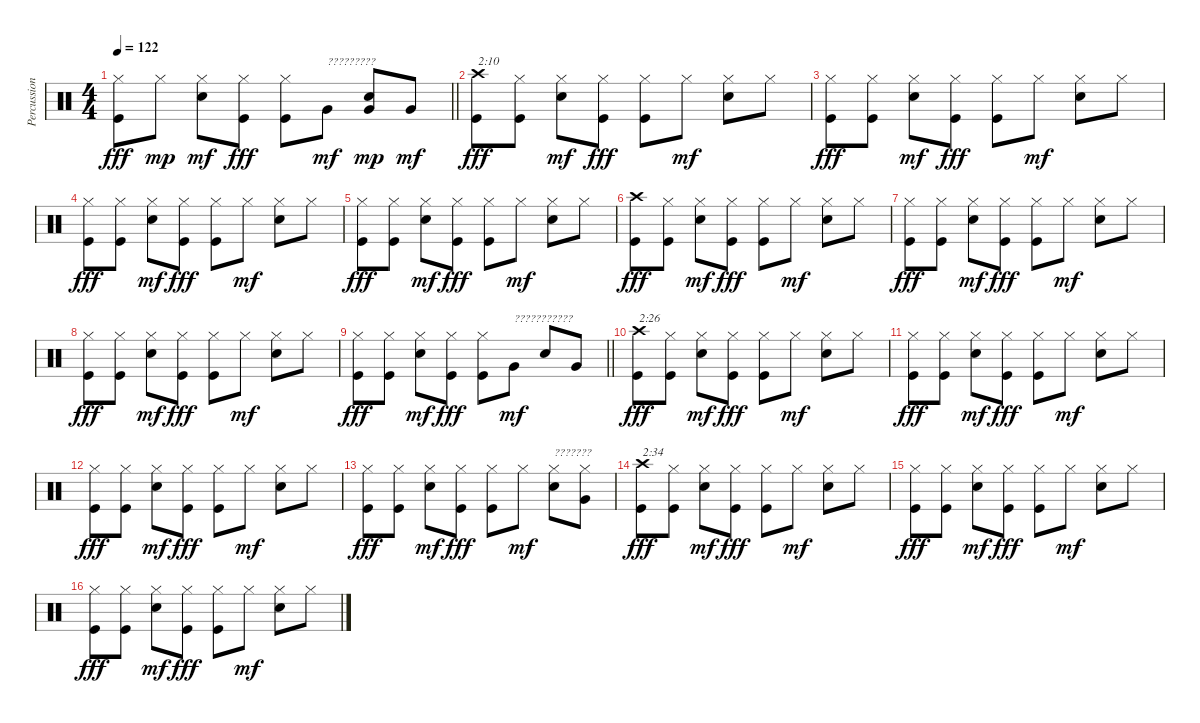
\track ("Percussion" "Percussion") {instrument percussion}
\staff {score}
\articulation defaults
\ts (4 4)
\tempo 122
\clef neutral
\barLineRight lightlight
\ks c
("Hi-Hat (closed)" "Kick (hit)").8{dy fff} "Hi-Hat (closed)".8{dy mp} ("Hi-Hat (closed)" "Snare (hit) 2").8{dy mf} ("Hi-Hat (closed)" "Kick (hit)").8{dy fff} ("Hi-Hat (closed)" "Kick (hit)").8 "Very Low Tom (hit)".8{txt "?????????" dy mf} ("Very Low Tom (hit)" "Snare (hit) 2").8{dy mp} "Very Low Tom (hit)".8{dy mf} |
("Crash high (hit)" "Kick (hit)").8{txt "2:10" dy fff} ("Hi-Hat (closed)" "Kick (hit)").8 ("Hi-Hat (closed)" "Snare (hit) 2").8{dy mf} ("Hi-Hat (closed)" "Kick (hit)").8{dy fff} ("Hi-Hat (closed)" "Kick (hit)").8 "Hi-Hat (closed)".8{dy mf} ("Hi-Hat (closed)" "Snare (hit) 2").8 "Hi-Hat (closed)".8 |
("Hi-Hat (closed)" "Kick (hit)").8{dy fff} ("Hi-Hat (closed)" "Kick (hit)").8 ("Hi-Hat (closed)" "Snare (hit) 2").8{dy mf} ("Hi-Hat (closed)" "Kick (hit)").8{dy fff} ("Hi-Hat (closed)" "Kick (hit)").8 "Hi-Hat (closed)".8{dy mf} ("Hi-Hat (closed)" "Snare (hit) 2").8 "Hi-Hat (closed)".8 |
("Hi-Hat (closed)" "Kick (hit)").8{dy fff} ("Hi-Hat (closed)" "Kick (hit)").8 ("Hi-Hat (closed)" "Snare (hit) 2").8{dy mf} ("Hi-Hat (closed)" "Kick (hit)").8{dy fff} ("Hi-Hat (closed)" "Kick (hit)").8 "Hi-Hat (closed)".8{dy mf} ("Hi-Hat (closed)" "Snare (hit) 2").8 "Hi-Hat (closed)".8 |
("Hi-Hat (closed)" "Kick (hit)").8{dy fff} ("Hi-Hat (closed)" "Kick (hit)").8 ("Hi-Hat (closed)" "Snare (hit) 2").8{dy mf} ("Hi-Hat (closed)" "Kick (hit)").8{dy fff} ("Hi-Hat (closed)" "Kick (hit)").8 "Hi-Hat (closed)".8{dy mf} ("Hi-Hat (closed)" "Snare (hit) 2").8 "Hi-Hat (closed)".8 |
("Crash high (hit)" "Kick (hit)").8{dy fff} ("Hi-Hat (closed)" "Kick (hit)").8 ("Hi-Hat (closed)" "Snare (hit) 2").8{dy mf} ("Hi-Hat (closed)" "Kick (hit)").8{dy fff} ("Hi-Hat (closed)" "Kick (hit)").8 "Hi-Hat (closed)".8{dy mf} ("Hi-Hat (closed)" "Snare (hit) 2").8 "Hi-Hat (closed)".8 |
("Hi-Hat (closed)" "Kick (hit)").8{dy fff} ("Hi-Hat (closed)" "Kick (hit)").8 ("Hi-Hat (closed)" "Snare (hit) 2").8{dy mf} ("Hi-Hat (closed)" "Kick (hit)").8{dy fff} ("Hi-Hat (closed)" "Kick (hit)").8 "Hi-Hat (closed)".8{dy mf} ("Hi-Hat (closed)" "Snare (hit) 2").8 "Hi-Hat (closed)".8 |
("Hi-Hat (closed)" "Kick (hit)").8{dy fff} ("Hi-Hat (closed)" "Kick (hit)").8 ("Hi-Hat (closed)" "Snare (hit) 2").8{dy mf} ("Hi-Hat (closed)" "Kick (hit)").8{dy fff} ("Hi-Hat (closed)" "Kick (hit)").8 "Hi-Hat (closed)".8{dy mf} ("Hi-Hat (closed)" "Snare (hit) 2").8 "Hi-Hat (closed)".8 |
\barLineRight lightlight
("Hi-Hat (closed)" "Kick (hit)").8{dy fff} ("Hi-Hat (closed)" "Kick (hit)").8 ("Hi-Hat (closed)" "Snare (hit) 2").8{dy mf} ("Hi-Hat (closed)" "Kick (hit)").8{dy fff} ("Hi-Hat (closed)" "Kick (hit)").8 "Very Low Tom (hit)".8{txt "???????????" dy mf} "Snare (hit) 2".8 "Very Low Tom (hit)".8 |
("Crash high (hit)" "Kick (hit)").8{txt "2:26" dy fff} ("Hi-Hat (closed)" "Kick (hit)").8 ("Hi-Hat (closed)" "Snare (hit) 2").8{dy mf} ("Hi-Hat (closed)" "Kick (hit)").8{dy fff} ("Hi-Hat (closed)" "Kick (hit)").8 "Hi-Hat (closed)".8{dy mf} ("Hi-Hat (closed)" "Snare (hit) 2").8 "Hi-Hat (closed)".8 |
("Hi-Hat (closed)" "Kick (hit)").8{dy fff} ("Hi-Hat (closed)" "Kick (hit)").8 ("Hi-Hat (closed)" "Snare (hit) 2").8{dy mf} ("Hi-Hat (closed)" "Kick (hit)").8{dy fff} ("Hi-Hat (closed)" "Kick (hit)").8 "Hi-Hat (closed)".8{dy mf} ("Hi-Hat (closed)" "Snare (hit) 2").8 "Hi-Hat (closed)".8 |
("Hi-Hat (closed)" "Kick (hit)").8{dy fff} ("Hi-Hat (closed)" "Kick (hit)").8 ("Hi-Hat (closed)" "Snare (hit) 2").8{dy mf} ("Hi-Hat (closed)" "Kick (hit)").8{dy fff} ("Hi-Hat (closed)" "Kick (hit)").8 "Hi-Hat (closed)".8{dy mf} ("Hi-Hat (closed)" "Snare (hit) 2").8 "Hi-Hat (closed)".8 |
("Hi-Hat (closed)" "Kick (hit)").8{dy fff} ("Hi-Hat (closed)" "Kick (hit)").8 ("Hi-Hat (closed)" "Snare (hit) 2").8{dy mf} ("Hi-Hat (closed)" "Kick (hit)").8{dy fff} ("Hi-Hat (closed)" "Kick (hit)").8 "Hi-Hat (closed)".8{dy mf} ("Hi-Hat (closed)" "Snare (hit) 2").8{txt "???????"} ("Hi-Hat (closed)" "Very Low Tom (hit)").8 |
("Crash high (hit)" "Kick (hit)").8{txt "2:34" dy fff} ("Hi-Hat (closed)" "Kick (hit)").8 ("Hi-Hat (closed)" "Snare (hit) 2").8{dy mf} ("Hi-Hat (closed)" "Kick (hit)").8{dy fff} ("Hi-Hat (closed)" "Kick (hit)").8 "Hi-Hat (closed)".8{dy mf} ("Hi-Hat (closed)" "Snare (hit) 2").8 "Hi-Hat (closed)".8 |
("Hi-Hat (closed)" "Kick (hit)").8{dy fff} ("Hi-Hat (closed)" "Kick (hit)").8 ("Hi-Hat (closed)" "Snare (hit) 2").8{dy mf} ("Hi-Hat (closed)" "Kick (hit)").8{dy fff} ("Hi-Hat (closed)" "Kick (hit)").8 "Hi-Hat (closed)".8{dy mf} ("Hi-Hat (closed)" "Snare (hit) 2").8 "Hi-Hat (closed)".8 |
("Hi-Hat (closed)" "Kick (hit)").8{dy fff} ("Hi-Hat (closed)" "Kick (hit)").8 ("Hi-Hat (closed)" "Snare (hit) 2").8{dy mf} ("Hi-Hat (closed)" "Kick (hit)").8{dy fff} ("Hi-Hat (closed)" "Kick (hit)").8 "Hi-Hat (closed)".8{dy mf} ("Hi-Hat (closed)" "Snare (hit) 2").8 "Hi-Hat (closed)".8
